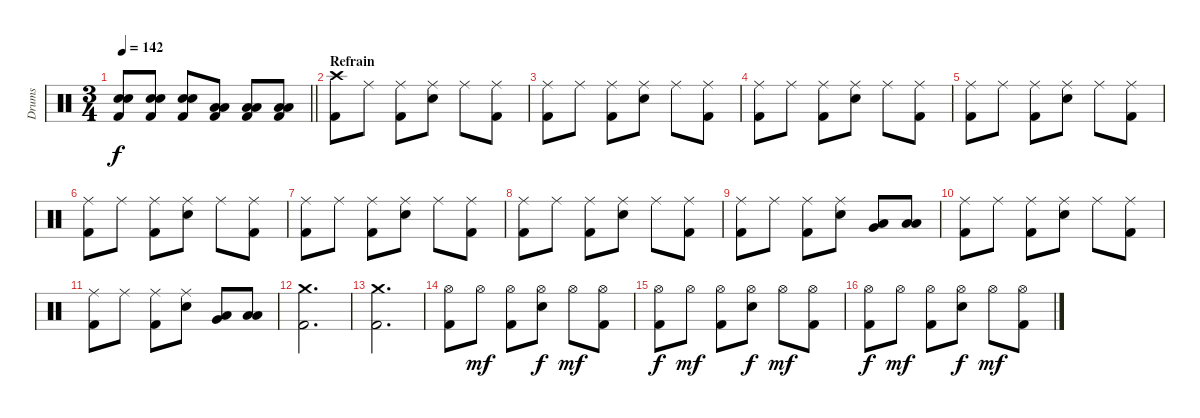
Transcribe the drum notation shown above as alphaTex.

\track ("Drums" "Drums") {instrument percussion}
\staff {score}
\articulation defaults
\ts (3 4)
\tempo 142
\clef neutral
\barLineRight lightlight
\ks c
("Electric Snare (hit)" "Snare (hit) 2" "Kick (hit) 2").8{dy f} ("Electric Snare (hit)" "Snare (hit) 2" "Kick (hit) 2").8 ("Electric Snare (hit)" "Snare (hit) 2" "Kick (hit) 2").8 ("Low Tom (hit)" "Low Floor Tom (hit)" "Kick (hit) 2").8 ("Low Tom (hit)" "Low Floor Tom (hit)" "Kick (hit) 2").8 ("Low Tom (hit)" "Low Floor Tom (hit)" "Kick (hit) 2").8 |
\section ("" "Refrain")
("Crash high (hit)" "Kick (hit) 2").8 "Ride (middle)".8 ("Ride (middle)" "Kick (hit) 2").8 ("Ride (middle)" "Electric Snare (hit)").8 "Ride (middle)".8 ("Ride (middle)" "Kick (hit) 2").8 |
("Ride (middle)" "Kick (hit) 2").8 "Ride (middle)".8 ("Ride (middle)" "Kick (hit) 2").8 ("Ride (middle)" "Electric Snare (hit)").8 "Ride (middle)".8 ("Ride (middle)" "Kick (hit) 2").8 |
("Ride (middle)" "Kick (hit) 2").8 "Ride (middle)".8 ("Ride (middle)" "Kick (hit) 2").8 ("Ride (middle)" "Electric Snare (hit)").8 "Ride (middle)".8 ("Ride (middle)" "Kick (hit) 2").8 |
("Ride (middle)" "Kick (hit) 2").8 "Ride (middle)".8 ("Ride (middle)" "Kick (hit) 2").8 ("Ride (middle)" "Electric Snare (hit)").8 "Ride (middle)".8 ("Ride (middle)" "Kick (hit) 2").8 |
("Ride (middle)" "Kick (hit) 2").8 "Ride (middle)".8 ("Ride (middle)" "Kick (hit) 2").8 ("Ride (middle)" "Electric Snare (hit)").8 "Ride (middle)".8 ("Ride (middle)" "Kick (hit) 2").8 |
("Ride (middle)" "Kick (hit) 2").8 "Ride (middle)".8 ("Ride (middle)" "Kick (hit) 2").8 ("Ride (middle)" "Electric Snare (hit)").8 "Ride (middle)".8 ("Ride (middle)" "Kick (hit) 2").8 |
("Ride (middle)" "Kick (hit) 2").8 "Ride (middle)".8 ("Ride (middle)" "Kick (hit) 2").8 ("Ride (middle)" "Electric Snare (hit)").8 "Ride (middle)".8 ("Ride (middle)" "Kick (hit) 2").8 |
("Ride (middle)" "Kick (hit) 2").8 "Ride (middle)".8 ("Ride (middle)" "Kick (hit) 2").8 ("Ride (middle)" "Electric Snare (hit)").8 ("Low Tom (hit)" "Very Low Tom (hit)").8 ("Low Tom (hit)" "Low Floor Tom (hit)").8 |
("Ride (middle)" "Kick (hit) 2").8 "Ride (middle)".8 ("Ride (middle)" "Kick (hit) 2").8 ("Ride (middle)" "Electric Snare (hit)").8 "Ride (middle)".8 ("Ride (middle)" "Kick (hit) 2").8 |
("Ride (middle)" "Kick (hit) 2").8 "Ride (middle)".8 ("Ride (middle)" "Kick (hit) 2").8 ("Ride (middle)" "Electric Snare (hit)").8 ("Low Tom (hit)" "Very Low Tom (hit)").8 ("Low Tom (hit)" "Low Floor Tom (hit)").8 |
("Crash medium (hit)" "Kick (hit) 2").2{d} |
("Crash medium (hit)" "Kick (hit) 2").2{d} |
("Hi-Hat (open)" "Kick (hit) 2").8 "Hi-Hat (open)".8{dy mf} ("Hi-Hat (open)" "Kick (hit) 2").8 ("Hi-Hat (open)" "Electric Snare (hit)").8{dy f} "Hi-Hat (open)".8{dy mf} ("Hi-Hat (open)" "Kick (hit) 2").8 |
("Hi-Hat (open)" "Kick (hit) 2").8{dy f} "Hi-Hat (open)".8{dy mf} ("Hi-Hat (open)" "Kick (hit) 2").8 ("Hi-Hat (open)" "Electric Snare (hit)").8{dy f} "Hi-Hat (open)".8{dy mf} ("Hi-Hat (open)" "Kick (hit) 2").8 |
("Hi-Hat (open)" "Kick (hit) 2").8{dy f} "Hi-Hat (open)".8{dy mf} ("Hi-Hat (open)" "Kick (hit) 2").8 ("Hi-Hat (open)" "Electric Snare (hit)").8{dy f} "Hi-Hat (open)".8{dy mf} ("Hi-Hat (open)" "Kick (hit) 2").8
